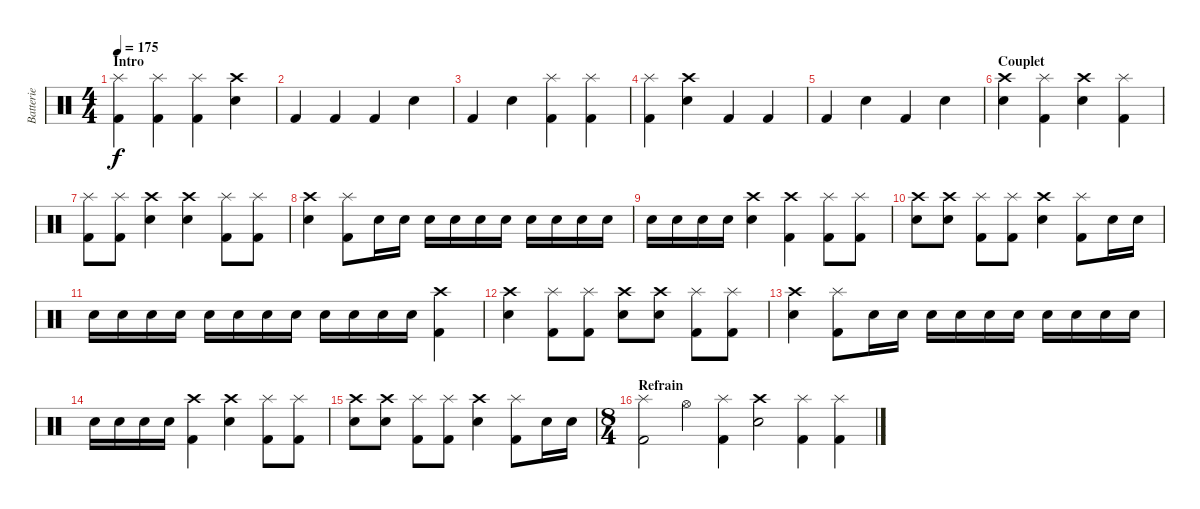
\track ("Batterie" "Batterie") {instrument percussion}
\staff {score}
\articulation defaults
\ts (4 4)
\section ("" "Intro")
\tempo 175
\clef neutral
\ks c
("Splash (hit)" "Kick (hit) 2").4{dy f} ("Splash (hit)" "Kick (hit) 2").4 ("Splash (hit)" "Kick (hit) 2").4 ("Crash high (hit)" "Snare (hit) 2").4 |
"Kick (hit) 2".4 "Kick (hit) 2".4 "Kick (hit) 2".4 "Snare (hit) 2".4 |
"Kick (hit) 2".4 "Snare (hit) 2".4 ("Splash (hit)" "Kick (hit) 2").4 ("Splash (hit)" "Kick (hit) 2").4 |
("Splash (hit)" "Kick (hit) 2").4 ("Crash high (hit)" "Snare (hit) 2").4 "Kick (hit) 2".4 "Kick (hit) 2".4 |
"Kick (hit) 2".4 "Snare (hit) 2".4 "Kick (hit) 2".4 "Snare (hit) 2".4 |
\section ("" "Couplet")
("Crash high (hit)" "Snare (hit) 2").4 ("Splash (hit)" "Kick (hit) 2").4 ("Crash high (hit)" "Snare (hit) 2").4 ("Splash (hit)" "Kick (hit) 2").4 |
("Splash (hit)" "Kick (hit) 2").8 ("Splash (hit)" "Kick (hit) 2").8 ("Crash high (hit)" "Snare (hit) 2").4 ("Crash high (hit)" "Snare (hit) 2").4 ("Splash (hit)" "Kick (hit) 2").8 ("Splash (hit)" "Kick (hit) 2").8 |
("Crash high (hit)" "Snare (hit) 2").4 ("Splash (hit)" "Kick (hit) 2").8 "Snare (hit) 2".16 "Snare (hit) 2".16 "Snare (hit) 2".16 "Snare (hit) 2".16 "Snare (hit) 2".16 "Snare (hit) 2".16 "Snare (hit) 2".16 "Snare (hit) 2".16 "Snare (hit) 2".16 "Snare (hit) 2".16 |
"Snare (hit) 2".16 "Snare (hit) 2".16 "Snare (hit) 2".16 "Snare (hit) 2".16 ("Crash high (hit)" "Snare (hit) 2").4 ("Crash high (hit)" "Kick (hit) 2").4 ("Splash (hit)" "Kick (hit) 2").8 ("Splash (hit)" "Kick (hit) 2").8 |
("Crash high (hit)" "Snare (hit) 2").8 ("Crash high (hit)" "Snare (hit) 2").8 ("Splash (hit)" "Kick (hit) 2").8 ("Splash (hit)" "Kick (hit) 2").8 ("Crash high (hit)" "Snare (hit) 2").4 ("Splash (hit)" "Kick (hit) 2").8 "Snare (hit) 2".16 "Snare (hit) 2".16 |
"Snare (hit) 2".16 "Snare (hit) 2".16 "Snare (hit) 2".16 "Snare (hit) 2".16 "Snare (hit) 2".16 "Snare (hit) 2".16 "Snare (hit) 2".16 "Snare (hit) 2".16 "Snare (hit) 2".16 "Snare (hit) 2".16 "Snare (hit) 2".16 "Snare (hit) 2".16 ("Crash high (hit)" "Kick (hit) 2").4 |
("Crash high (hit)" "Snare (hit) 2").4 ("Splash (hit)" "Kick (hit) 2").8 ("Splash (hit)" "Kick (hit) 2").8 ("Crash high (hit)" "Snare (hit) 2").8 ("Crash high (hit)" "Snare (hit) 2").8 ("Splash (hit)" "Kick (hit) 2").8 ("Splash (hit)" "Kick (hit) 2").8 |
("Crash high (hit)" "Snare (hit) 2").4 ("Splash (hit)" "Kick (hit) 2").8 "Snare (hit) 2".16 "Snare (hit) 2".16 "Snare (hit) 2".16 "Snare (hit) 2".16 "Snare (hit) 2".16 "Snare (hit) 2".16 "Snare (hit) 2".16 "Snare (hit) 2".16 "Snare (hit) 2".16 "Snare (hit) 2".16 |
"Snare (hit) 2".16 "Snare (hit) 2".16 "Snare (hit) 2".16 "Snare (hit) 2".16 ("Crash high (hit)" "Kick (hit) 2").4 ("Crash high (hit)" "Snare (hit) 2").4 ("Splash (hit)" "Kick (hit) 2").8 ("Splash (hit)" "Kick (hit) 2").8 |
("Crash high (hit)" "Snare (hit) 2").8 ("Crash high (hit)" "Snare (hit) 2").8 ("Splash (hit)" "Kick (hit) 2").8 ("Splash (hit)" "Kick (hit) 2").8 ("Crash high (hit)" "Snare (hit) 2").4 ("Splash (hit)" "Kick (hit) 2").8 "Snare (hit) 2".16 "Snare (hit) 2".16 |
\ts (8 4)
\section ("" "Refrain")
("Splash (hit)" "Kick (hit) 2").2 "Hi-Hat (open)".4 ("Splash (hit)" "Kick (hit) 2").4 ("Crash high (hit)" "Snare (hit) 2").2 ("Splash (hit)" "Kick (hit) 2").4 ("Splash (hit)" "Kick (hit) 2").4
